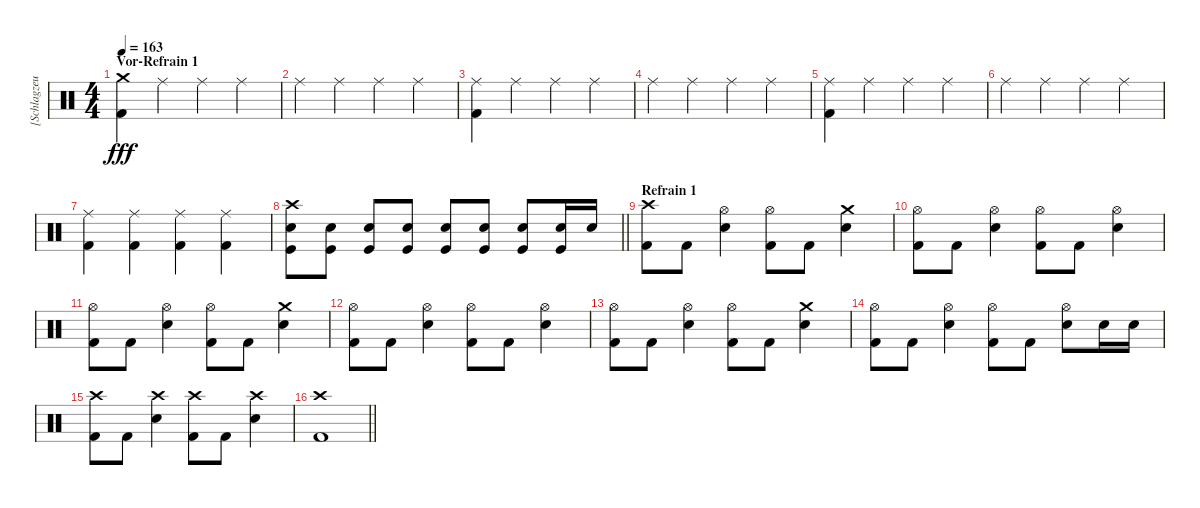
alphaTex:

\track ("[Schlagzeug]" "[Schlagzeu") {instrument percussion}
\staff {score}
\articulation defaults
\ts (4 4)
\section ("" "Vor-Refrain 1")
\tempo 163
\clef neutral
\ks c
("Crash medium (hit)" "Kick (hit) 2").4{dy fff} "Ride (middle)".4 "Ride (middle)".4 "Ride (middle)".4 |
"Ride (middle)".4 "Ride (middle)".4 "Ride (middle)".4 "Ride (middle)".4 |
("Ride (middle)" "Kick (hit) 2").4 "Ride (middle)".4 "Ride (middle)".4 "Ride (middle)".4 |
"Ride (middle)".4 "Ride (middle)".4 "Ride (middle)".4 "Ride (middle)".4 |
("Ride (middle)" "Kick (hit) 2").4 "Ride (middle)".4 "Ride (middle)".4 "Ride (middle)".4 |
"Ride (middle)".4 "Ride (middle)".4 "Ride (middle)".4 "Ride (middle)".4 |
("Ride (middle)" "Kick (hit) 2").4 ("Ride (middle)" "Kick (hit) 2").4 ("Ride (middle)" "Kick (hit) 2").4 ("Ride (middle)" "Kick (hit) 2").4 |
\barLineRight lightlight
("Crash high (hit)" "Electric Snare (hit)" "Kick (hit)").8 ("Electric Snare (hit)" "Kick (hit)").8 ("Electric Snare (hit)" "Kick (hit)").8 ("Electric Snare (hit)" "Kick (hit)").8 ("Electric Snare (hit)" "Kick (hit)").8 ("Electric Snare (hit)" "Kick (hit)").8 ("Electric Snare (hit)" "Kick (hit)").8 ("Electric Snare (hit)" "Kick (hit)").16 "Electric Snare (hit)".16 |
\section ("" "Refrain 1")
("Crash high (hit)" "Kick (hit) 2").8 "Kick (hit) 2".8 ("Hi-Hat (open)" "Electric Snare (hit)").4 ("Hi-Hat (open)" "Kick (hit) 2").8 "Kick (hit) 2".8 ("Crash medium (hit)" "Electric Snare (hit)").4 |
("Hi-Hat (open)" "Kick (hit) 2").8 "Kick (hit) 2".8 ("Hi-Hat (open)" "Electric Snare (hit)").4 ("Hi-Hat (open)" "Kick (hit) 2").8 "Kick (hit) 2".8 ("Hi-Hat (open)" "Electric Snare (hit)").4 |
("Hi-Hat (open)" "Kick (hit) 2").8 "Kick (hit) 2".8 ("Hi-Hat (open)" "Electric Snare (hit)").4 ("Hi-Hat (open)" "Kick (hit) 2").8 "Kick (hit) 2".8 ("Crash medium (hit)" "Electric Snare (hit)").4 |
("Hi-Hat (open)" "Kick (hit) 2").8 "Kick (hit) 2".8 ("Hi-Hat (open)" "Electric Snare (hit)").4 ("Hi-Hat (open)" "Kick (hit) 2").8 "Kick (hit) 2".8 ("Hi-Hat (open)" "Electric Snare (hit)").4 |
("Hi-Hat (open)" "Kick (hit) 2").8 "Kick (hit) 2".8 ("Hi-Hat (open)" "Electric Snare (hit)").4 ("Hi-Hat (open)" "Kick (hit) 2").8 "Kick (hit) 2".8 ("Crash medium (hit)" "Electric Snare (hit)").4 |
("Hi-Hat (open)" "Kick (hit) 2").8 "Kick (hit) 2".8 ("Hi-Hat (open)" "Electric Snare (hit)").4 ("Hi-Hat (open)" "Kick (hit) 2").8 "Kick (hit) 2".8 ("Hi-Hat (open)" "Electric Snare (hit)").8 "Electric Snare (hit)".16 "Electric Snare (hit)".16 |
("Crash high (hit)" "Kick (hit) 2").8 "Kick (hit) 2".8 ("Crash high (hit)" "Electric Snare (hit)").4 ("Crash high (hit)" "Kick (hit) 2").8 "Kick (hit) 2".8 ("Crash high (hit)" "Electric Snare (hit)").4 |
\barLineRight lightlight
("Crash high (hit)" "Kick (hit) 2").1
